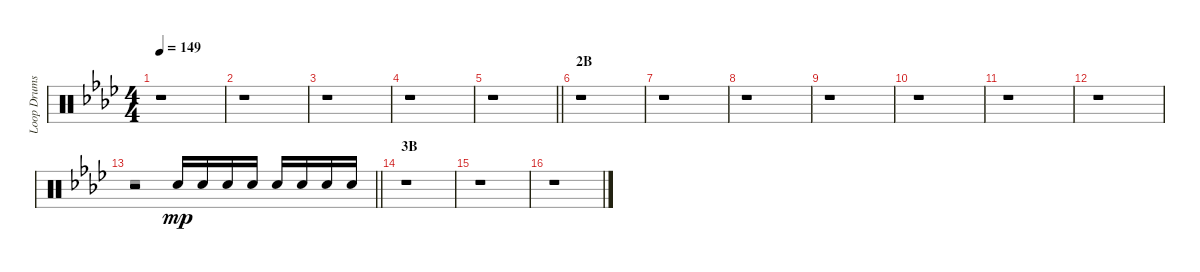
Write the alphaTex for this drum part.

\track ("Loop Drums" "Loop Drums") {instrument percussion}
\staff {score}
\articulation defaults
\voice
\ts (4 4)
\tempo 149
\clef neutral
\ks ab
r.1{dy mp} |
r.1 |
r.1 |
r.1 |
\barLineRight lightlight
r.1 |
\section ("" "2B")
r.1 |
r.1 |
r.1 |
r.1 |
r.1 |
r.1 |
r.1 |
\barLineRight lightlight
r.2 "Electric Snare (hit)".16 "Electric Snare (hit)".16 "Electric Snare (hit)".16 "Electric Snare (hit)".16 "Electric Snare (hit)".16 "Electric Snare (hit)".16 "Electric Snare (hit)".16 "Electric Snare (hit)".16 |
\section ("" "3B")
r.1 |
r.1 |
r.1
\voice
\clef neutral
\ottava regular
\simile none
\ks ab
r.1{dy f} |
r.1 |
r.1 |
r.1 |
\barLineRight lightlight
r.1 |
r.1 |
r.1 |
r.1 |
r.1 |
r.1 |
r.1 |
r.1 |
\barLineRight lightlight
r.1 |
r.1 |
r.1 |
r.1
